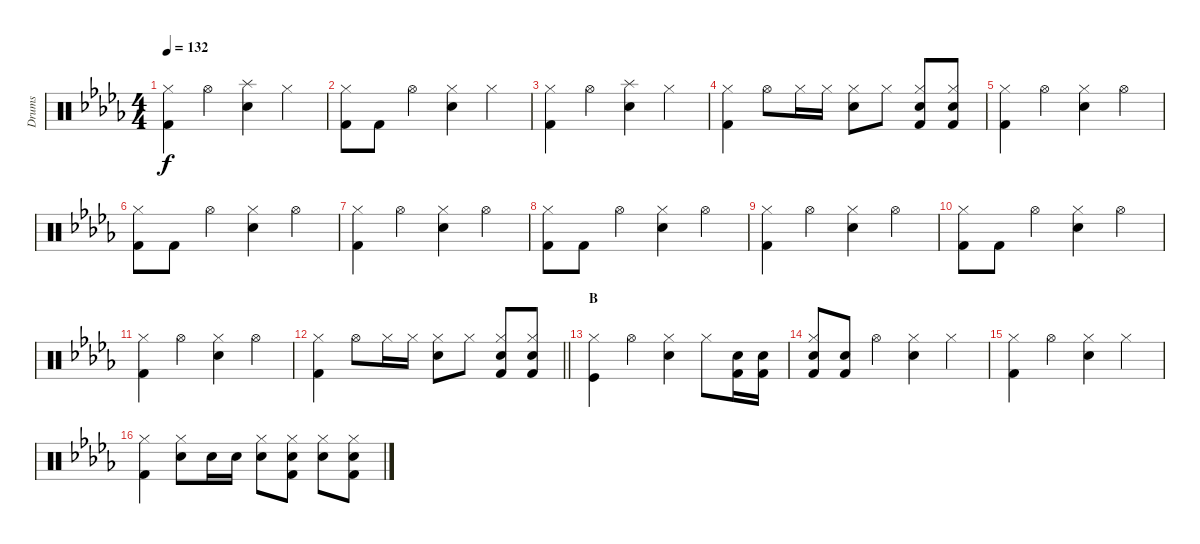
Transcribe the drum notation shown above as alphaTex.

\track ("Drums" "Drums") {instrument percussion}
\staff {score}
\articulation defaults
\ts (4 4)
\tempo 132
\clef neutral
\ks db
("Kick (hit) 2" "Hi-Hat (closed)").4{dy f} "Hi-Hat (open)".4 ("Splash (hit)" "Snare (hit) 2").4 "Hi-Hat (closed)".4 |
("Kick (hit) 2" "Hi-Hat (closed)").8 "Kick (hit) 2".8 "Hi-Hat (open)".4 ("Hand Clap (hit)" "Hi-Hat (closed)").4 "Hi-Hat (closed)".4 |
("Kick (hit) 2" "Hi-Hat (closed)").4 "Hi-Hat (open)".4 ("Splash (hit)" "Snare (hit) 2").4 "Hi-Hat (closed)".4 |
("Kick (hit) 2" "Hi-Hat (closed)").4 "Hi-Hat (open)".8 "Hi-Hat (closed)".16 "Hi-Hat (closed)".16 ("Hi-Hat (closed)" "Snare (hit) 2").8 "Hi-Hat (closed)".8 ("Hi-Hat (closed)" "Kick (hit) 2" "Snare (hit) 2").8 ("Hi-Hat (closed)" "Kick (hit) 2" "Snare (hit) 2").8 |
("Kick (hit) 2" "Hi-Hat (closed)").4 "Hi-Hat (open)".4 ("Snare (hit) 2" "Hi-Hat (closed)").4 "Hi-Hat (open)".4 |
("Kick (hit) 2" "Hi-Hat (closed)").8 "Kick (hit) 2".8 "Hi-Hat (open)".4 ("Snare (hit) 2" "Hi-Hat (closed)").4 "Hi-Hat (open)".4 |
("Kick (hit) 2" "Hi-Hat (closed)").4 "Hi-Hat (open)".4 ("Snare (hit) 2" "Hi-Hat (closed)").4 "Hi-Hat (open)".4 |
("Kick (hit) 2" "Hi-Hat (closed)").8 "Kick (hit) 2".8 "Hi-Hat (open)".4 ("Snare (hit) 2" "Hi-Hat (closed)").4 "Hi-Hat (open)".4 |
("Kick (hit) 2" "Hi-Hat (closed)").4 "Hi-Hat (open)".4 ("Snare (hit) 2" "Hi-Hat (closed)").4 "Hi-Hat (open)".4 |
("Kick (hit) 2" "Hi-Hat (closed)").8 "Kick (hit) 2".8 "Hi-Hat (open)".4 ("Snare (hit) 2" "Hi-Hat (closed)").4 "Hi-Hat (open)".4 |
("Kick (hit) 2" "Hi-Hat (closed)").4 "Hi-Hat (open)".4 ("Snare (hit) 2" "Hi-Hat (closed)").4 "Hi-Hat (open)".4 |
\barLineRight lightlight
("Kick (hit) 2" "Hi-Hat (closed)").4 "Hi-Hat (open)".8 "Hi-Hat (closed)".16 "Hi-Hat (closed)".16 ("Hi-Hat (closed)" "Snare (hit) 2").8 "Hi-Hat (closed)".8 ("Hi-Hat (closed)" "Kick (hit) 2" "Snare (hit) 2").8 ("Hi-Hat (closed)" "Kick (hit) 2" "Snare (hit) 2").8 |
\section ("" "B")
("Kick (hit)" "Hi-Hat (closed)").4 "Hi-Hat (open)".4 ("Snare (hit) 2" "Hi-Hat (closed)").4 "Hi-Hat (closed)".8 ("Kick (hit) 2" "Snare (hit) 2").16 ("Kick (hit) 2" "Snare (hit) 2").16 |
("Kick (hit) 2" "Hi-Hat (closed)" "Snare (hit) 2").8 ("Kick (hit) 2" "Snare (hit) 2").8 "Hi-Hat (open)".4 ("Snare (hit) 2" "Hi-Hat (closed)").4 "Hi-Hat (closed)".4 |
("Kick (hit) 2" "Hi-Hat (closed)").4 "Hi-Hat (open)".4 ("Snare (hit) 2" "Hi-Hat (closed)").4 "Hi-Hat (closed)".4 |
("Kick (hit) 2" "Hi-Hat (closed)").4 ("Snare (hit) 2" "Hi-Hat (closed)").8 "Snare (hit) 2".16 "Snare (hit) 2".16 ("Snare (hit) 2" "Hi-Hat (closed)").8 ("Snare (hit) 2" "Hi-Hat (closed)" "Kick (hit) 2").8 ("Snare (hit) 2" "Hi-Hat (closed)").8 ("Snare (hit) 2" "Hi-Hat (closed)" "Kick (hit) 2").8
